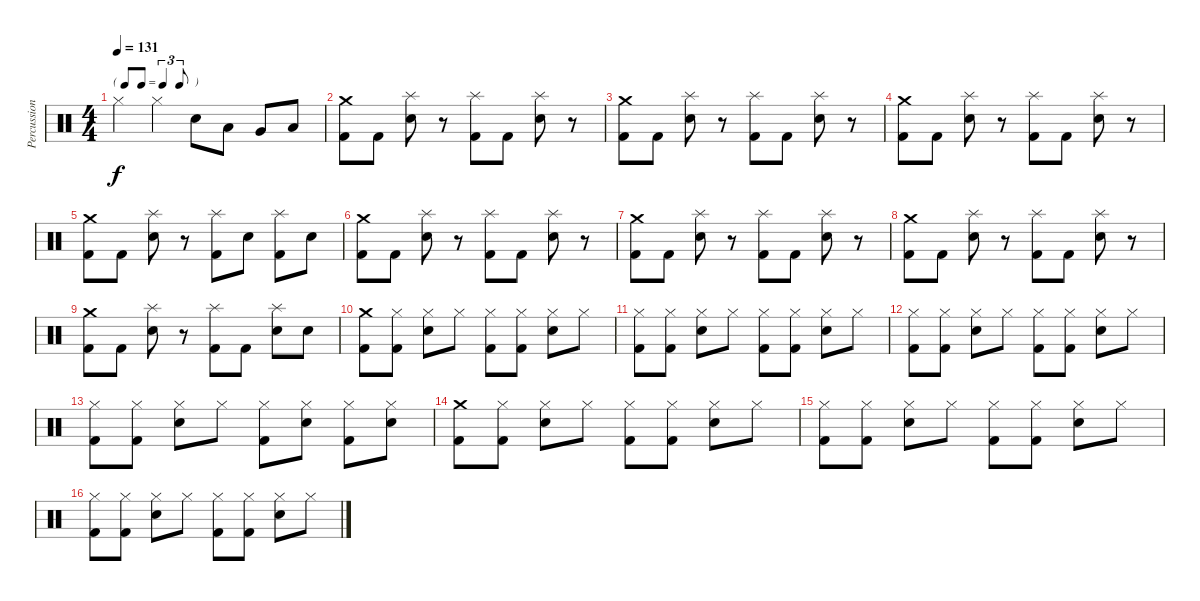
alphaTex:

\track ("Percussioni" "Percussion") {instrument percussion}
\staff {score}
\articulation defaults
\ts (4 4)
\tf triplet8th
\tempo 131
\clef neutral
\ks c "Hi-Hat (closed)".4{dy f} "Hi-Hat (closed)".4 "Electric Snare (hit)".8 "Low Tom (hit)".8 "Very Low Tom (hit)".8 "Low Floor Tom (hit)".8
|
("Crash medium (hit)" "Kick (hit) 2").8 "Kick (hit) 2".8 ("Splash (hit)" "Electric Snare (hit)").8 r.8 ("Splash (hit)" "Kick (hit) 2").8 "Kick (hit) 2".8 ("Splash (hit)" "Electric Snare (hit)").8 r.8 |
("Crash medium (hit)" "Kick (hit) 2").8 "Kick (hit) 2".8 ("Splash (hit)" "Electric Snare (hit)").8 r.8 ("Splash (hit)" "Kick (hit) 2").8 "Kick (hit) 2".8 ("Splash (hit)" "Electric Snare (hit)").8 r.8 |
("Crash medium (hit)" "Kick (hit) 2").8 "Kick (hit) 2".8 ("Splash (hit)" "Electric Snare (hit)").8 r.8 ("Splash (hit)" "Kick (hit) 2").8 "Kick (hit) 2".8 ("Splash (hit)" "Electric Snare (hit)").8 r.8 |
("Crash medium (hit)" "Kick (hit) 2").8 "Kick (hit) 2".8 ("Splash (hit)" "Electric Snare (hit)").8 r.8 ("Splash (hit)" "Kick (hit) 2").8 "Electric Snare (hit)".8 ("Splash (hit)" "Kick (hit) 2").8 "Electric Snare (hit)".8 |
("Crash medium (hit)" "Kick (hit) 2").8 "Kick (hit) 2".8 ("Splash (hit)" "Electric Snare (hit)").8 r.8 ("Splash (hit)" "Kick (hit) 2").8 "Kick (hit) 2".8 ("Splash (hit)" "Electric Snare (hit)").8 r.8 |
("Crash medium (hit)" "Kick (hit) 2").8 "Kick (hit) 2".8 ("Splash (hit)" "Electric Snare (hit)").8 r.8 ("Splash (hit)" "Kick (hit) 2").8 "Kick (hit) 2".8 ("Splash (hit)" "Electric Snare (hit)").8 r.8 |
("Crash medium (hit)" "Kick (hit) 2").8 "Kick (hit) 2".8 ("Splash (hit)" "Electric Snare (hit)").8 r.8 ("Splash (hit)" "Kick (hit) 2").8 "Kick (hit) 2".8 ("Splash (hit)" "Electric Snare (hit)").8 r.8 |
("Crash medium (hit)" "Kick (hit) 2").8 "Kick (hit) 2".8 ("Splash (hit)" "Electric Snare (hit)").8 r.8 ("Splash (hit)" "Kick (hit) 2").8 "Kick (hit) 2".8 ("Splash (hit)" "Electric Snare (hit)").8 "Electric Snare (hit)".8 |
("Crash medium (hit)" "Kick (hit) 2").8 ("Hi-Hat (closed)" "Kick (hit) 2").8 ("Hi-Hat (closed)" "Electric Snare (hit)").8 "Hi-Hat (closed)".8 ("Hi-Hat (closed)" "Kick (hit) 2").8 ("Hi-Hat (closed)" "Kick (hit) 2").8 ("Hi-Hat (closed)" "Electric Snare (hit)").8 "Hi-Hat (closed)".8 |
("Hi-Hat (closed)" "Kick (hit) 2").8 ("Hi-Hat (closed)" "Kick (hit) 2").8 ("Hi-Hat (closed)" "Electric Snare (hit)").8 "Hi-Hat (closed)".8 ("Hi-Hat (closed)" "Kick (hit) 2").8 ("Hi-Hat (closed)" "Kick (hit) 2").8 ("Hi-Hat (closed)" "Electric Snare (hit)").8 "Hi-Hat (closed)".8 |
("Hi-Hat (closed)" "Kick (hit) 2").8 ("Hi-Hat (closed)" "Kick (hit) 2").8 ("Hi-Hat (closed)" "Electric Snare (hit)").8 "Hi-Hat (closed)".8 ("Hi-Hat (closed)" "Kick (hit) 2").8 ("Hi-Hat (closed)" "Kick (hit) 2").8 ("Hi-Hat (closed)" "Electric Snare (hit)").8 "Hi-Hat (closed)".8 |
("Hi-Hat (closed)" "Kick (hit) 2").8 ("Hi-Hat (closed)" "Kick (hit) 2").8 ("Hi-Hat (closed)" "Electric Snare (hit)").8 "Hi-Hat (closed)".8 ("Hi-Hat (closed)" "Kick (hit) 2").8 ("Hi-Hat (closed)" "Electric Snare (hit)").8 ("Hi-Hat (closed)" "Kick (hit) 2").8 ("Hi-Hat (closed)" "Electric Snare (hit)").8 |
("Crash medium (hit)" "Kick (hit) 2").8 ("Hi-Hat (closed)" "Kick (hit) 2").8 ("Hi-Hat (closed)" "Electric Snare (hit)").8 "Hi-Hat (closed)".8 ("Hi-Hat (closed)" "Kick (hit) 2").8 ("Hi-Hat (closed)" "Kick (hit) 2").8 ("Hi-Hat (closed)" "Electric Snare (hit)").8 "Hi-Hat (closed)".8 |
("Hi-Hat (closed)" "Kick (hit) 2").8 ("Hi-Hat (closed)" "Kick (hit) 2").8 ("Hi-Hat (closed)" "Electric Snare (hit)").8 "Hi-Hat (closed)".8 ("Hi-Hat (closed)" "Kick (hit) 2").8 ("Hi-Hat (closed)" "Kick (hit) 2").8 ("Hi-Hat (closed)" "Electric Snare (hit)").8 "Hi-Hat (closed)".8 |
("Hi-Hat (closed)" "Kick (hit) 2").8 ("Hi-Hat (closed)" "Kick (hit) 2").8 ("Hi-Hat (closed)" "Electric Snare (hit)").8 "Hi-Hat (closed)".8 ("Hi-Hat (closed)" "Kick (hit) 2").8 ("Hi-Hat (closed)" "Kick (hit) 2").8 ("Hi-Hat (closed)" "Electric Snare (hit)").8 "Hi-Hat (closed)".8
